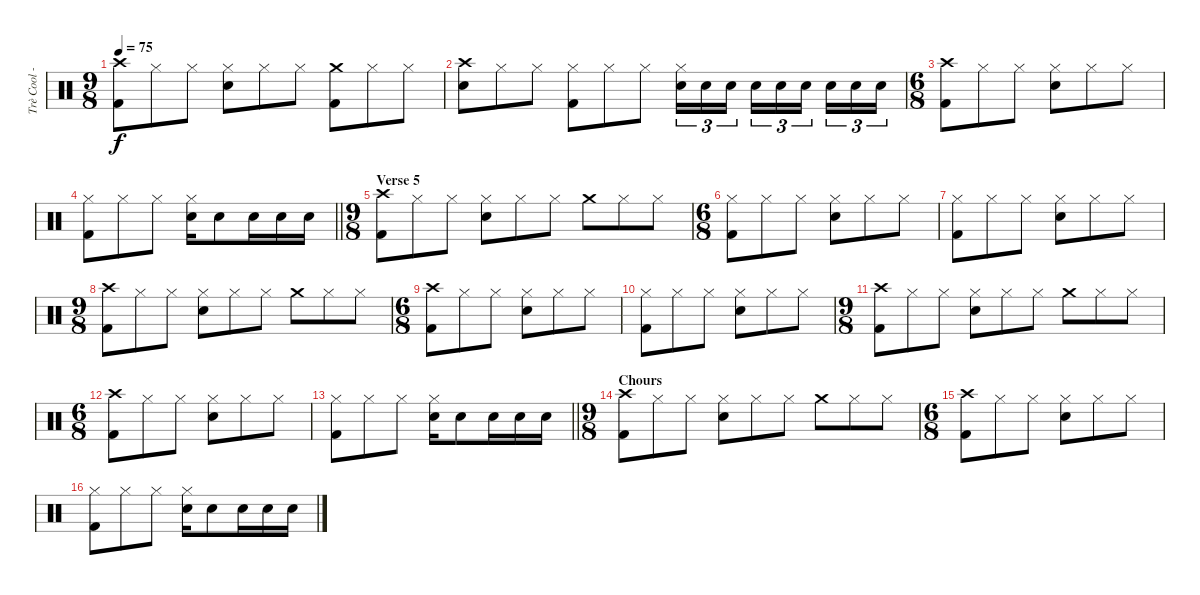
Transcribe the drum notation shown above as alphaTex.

\track ("Trè Cool - Drums" "Trè Cool -") {instrument percussion}
\staff {score}
\articulation defaults
\ts (9 8)
\tempo 75
\clef neutral
\ks c
("Crash high (hit)" "Kick (hit) 2").8{dy f} "Hi-Hat (closed)".8 "Hi-Hat (closed)".8 ("Hi-Hat (closed)" "Electric Snare (hit)").8 "Hi-Hat (closed)".8 "Hi-Hat (closed)".8 ("Crash medium (hit)" "Kick (hit) 2").8 "Hi-Hat (closed)".8 "Hi-Hat (closed)".8 |
("Crash high (hit)" "Electric Snare (hit)").8 "Hi-Hat (closed)".8 "Hi-Hat (closed)".8 ("Hi-Hat (closed)" "Kick (hit) 2").8 "Hi-Hat (closed)".8 "Hi-Hat (closed)".8 ("Hi-Hat (closed)" "Electric Snare (hit)").16{tu (3 2)} "Electric Snare (hit)".16{tu (3 2)} "Electric Snare (hit)".16{tu (3 2) beam splitsecondary} "Electric Snare (hit)".16{tu (3 2)} "Electric Snare (hit)".16{tu (3 2)} "Electric Snare (hit)".16{tu (3 2) beam splitsecondary} "Electric Snare (hit)".16{tu (3 2)} "Electric Snare (hit)".16{tu (3 2)} "Electric Snare (hit)".16{tu (3 2)} |
\ts (6 8)
("Crash high (hit)" "Kick (hit) 2").8 "Hi-Hat (closed)".8 "Hi-Hat (closed)".8 ("Hi-Hat (closed)" "Electric Snare (hit)").8 "Hi-Hat (closed)".8 "Hi-Hat (closed)".8 |
\barLineRight lightlight
("Hi-Hat (closed)" "Kick (hit) 2").8 "Hi-Hat (closed)".8 "Hi-Hat (closed)".8 ("Hi-Hat (closed)" "Electric Snare (hit)").16 "Electric Snare (hit)".8 "Electric Snare (hit)".16 "Electric Snare (hit)".16 "Electric Snare (hit)".16 |
\ts (9 8)
\section ("" "Verse 5")
("Crash high (hit)" "Kick (hit) 2").8{volume 13} "Hi-Hat (closed)".8 "Hi-Hat (closed)".8 ("Hi-Hat (closed)" "Electric Snare (hit)").8 "Hi-Hat (closed)".8 "Hi-Hat (closed)".8 "Crash medium (hit)".8 "Hi-Hat (closed)".8 "Hi-Hat (closed)".8 |
\ts (6 8)
("Hi-Hat (closed)" "Kick (hit) 2").8 "Hi-Hat (closed)".8 "Hi-Hat (closed)".8 ("Hi-Hat (closed)" "Electric Snare (hit)").8 "Hi-Hat (closed)".8 "Hi-Hat (closed)".8 |
("Hi-Hat (closed)" "Kick (hit) 2").8 "Hi-Hat (closed)".8 "Hi-Hat (closed)".8 ("Hi-Hat (closed)" "Electric Snare (hit)").8 "Hi-Hat (closed)".8 "Hi-Hat (closed)".8 |
\ts (9 8)
("Crash high (hit)" "Kick (hit) 2").8 "Hi-Hat (closed)".8 "Hi-Hat (closed)".8 ("Hi-Hat (closed)" "Electric Snare (hit)").8 "Hi-Hat (closed)".8 "Hi-Hat (closed)".8 "Crash medium (hit)".8 "Hi-Hat (closed)".8 "Hi-Hat (closed)".8 |
\ts (6 8)
("Crash high (hit)" "Kick (hit) 2").8 "Hi-Hat (closed)".8 "Hi-Hat (closed)".8 ("Hi-Hat (closed)" "Electric Snare (hit)").8 "Hi-Hat (closed)".8 "Hi-Hat (closed)".8 |
("Hi-Hat (closed)" "Kick (hit) 2").8 "Hi-Hat (closed)".8 "Hi-Hat (closed)".8 ("Hi-Hat (closed)" "Electric Snare (hit)").8 "Hi-Hat (closed)".8 "Hi-Hat (closed)".8 |
\ts (9 8)
("Crash high (hit)" "Kick (hit) 2").8 "Hi-Hat (closed)".8 "Hi-Hat (closed)".8 ("Hi-Hat (closed)" "Electric Snare (hit)").8 "Hi-Hat (closed)".8 "Hi-Hat (closed)".8 "Crash medium (hit)".8 "Hi-Hat (closed)".8 "Hi-Hat (closed)".8 |
\ts (6 8)
("Crash high (hit)" "Kick (hit) 2").8 "Hi-Hat (closed)".8 "Hi-Hat (closed)".8 ("Hi-Hat (closed)" "Electric Snare (hit)").8 "Hi-Hat (closed)".8 "Hi-Hat (closed)".8 |
\barLineRight lightlight
("Hi-Hat (closed)" "Kick (hit) 2").8 "Hi-Hat (closed)".8 "Hi-Hat (closed)".8 ("Hi-Hat (closed)" "Electric Snare (hit)").16 "Electric Snare (hit)".8 "Electric Snare (hit)".16 "Electric Snare (hit)".16 "Electric Snare (hit)".16 |
\ts (9 8)
\section ("" "Chours")
("Crash high (hit)" "Kick (hit) 2").8 "Hi-Hat (closed)".8 "Hi-Hat (closed)".8 ("Hi-Hat (closed)" "Electric Snare (hit)").8 "Hi-Hat (closed)".8 "Hi-Hat (closed)".8 "Crash medium (hit)".8 "Hi-Hat (closed)".8 "Hi-Hat (closed)".8 |
\ts (6 8)
("Crash high (hit)" "Kick (hit) 2").8 "Hi-Hat (closed)".8 "Hi-Hat (closed)".8 ("Hi-Hat (closed)" "Electric Snare (hit)").8 "Hi-Hat (closed)".8 "Hi-Hat (closed)".8 |
("Hi-Hat (closed)" "Kick (hit) 2").8 "Hi-Hat (closed)".8 "Hi-Hat (closed)".8 ("Hi-Hat (closed)" "Electric Snare (hit)").16 "Electric Snare (hit)".8 "Electric Snare (hit)".16 "Electric Snare (hit)".16 "Electric Snare (hit)".16
